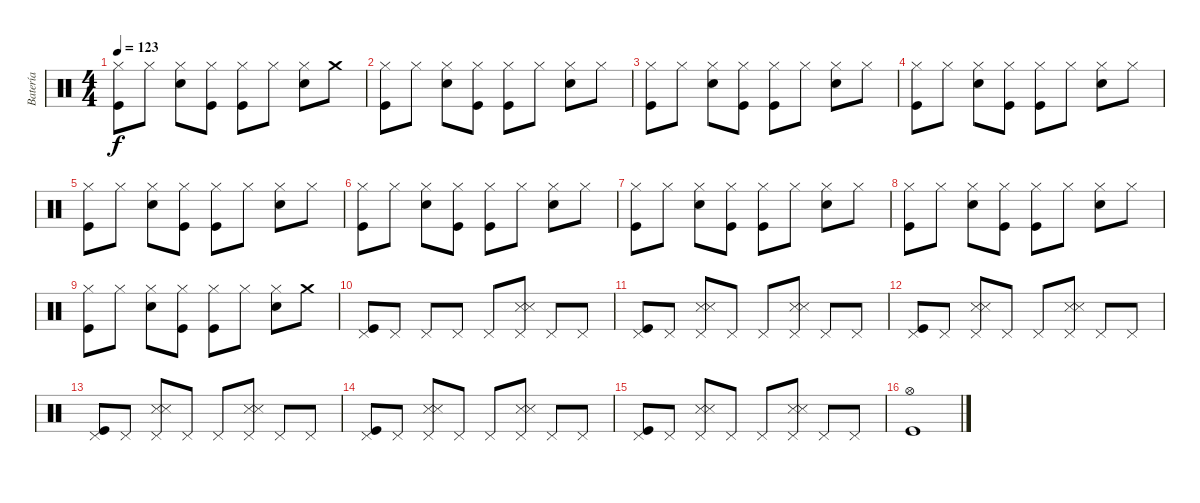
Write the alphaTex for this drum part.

\track ("Batería" "Batería") {instrument percussion}
\staff {score}
\articulation defaults
\ts (4 4)
\tempo 123
\clef neutral
\ks c
("Hi-Hat (closed)" "Kick (hit)").8{dy f} "Hi-Hat (closed)".8 ("Hi-Hat (closed)" "Snare (hit) 2").8 ("Hi-Hat (closed)" "Kick (hit)").8 ("Hi-Hat (closed)" "Kick (hit)").8 "Hi-Hat (closed)".8 ("Hi-Hat (closed)" "Snare (hit) 2").8 "Crash medium (hit)".8 |
("Hi-Hat (closed)" "Kick (hit)").8 "Hi-Hat (closed)".8 ("Hi-Hat (closed)" "Snare (hit) 2").8 ("Hi-Hat (closed)" "Kick (hit)").8 ("Hi-Hat (closed)" "Kick (hit)").8 "Hi-Hat (closed)".8 ("Hi-Hat (closed)" "Snare (hit) 2").8 "Hi-Hat (closed)".8 |
("Hi-Hat (closed)" "Kick (hit)").8 "Hi-Hat (closed)".8 ("Hi-Hat (closed)" "Snare (hit) 2").8 ("Hi-Hat (closed)" "Kick (hit)").8 ("Hi-Hat (closed)" "Kick (hit)").8 "Hi-Hat (closed)".8 ("Hi-Hat (closed)" "Snare (hit) 2").8 "Hi-Hat (closed)".8 |
("Hi-Hat (closed)" "Kick (hit)").8 "Hi-Hat (closed)".8 ("Hi-Hat (closed)" "Snare (hit) 2").8 ("Hi-Hat (closed)" "Kick (hit)").8 ("Hi-Hat (closed)" "Kick (hit)").8 "Hi-Hat (closed)".8 ("Hi-Hat (closed)" "Snare (hit) 2").8 "Hi-Hat (closed)".8 |
("Hi-Hat (closed)" "Kick (hit)").8 "Hi-Hat (closed)".8 ("Hi-Hat (closed)" "Snare (hit) 2").8 ("Hi-Hat (closed)" "Kick (hit)").8 ("Hi-Hat (closed)" "Kick (hit)").8 "Hi-Hat (closed)".8 ("Hi-Hat (closed)" "Snare (hit) 2").8 "Hi-Hat (closed)".8 |
("Hi-Hat (closed)" "Kick (hit)").8 "Hi-Hat (closed)".8 ("Hi-Hat (closed)" "Snare (hit) 2").8 ("Hi-Hat (closed)" "Kick (hit)").8 ("Hi-Hat (closed)" "Kick (hit)").8 "Hi-Hat (closed)".8 ("Hi-Hat (closed)" "Snare (hit) 2").8 "Hi-Hat (closed)".8 |
("Hi-Hat (closed)" "Kick (hit)").8 "Hi-Hat (closed)".8 ("Hi-Hat (closed)" "Snare (hit) 2").8 ("Hi-Hat (closed)" "Kick (hit)").8 ("Hi-Hat (closed)" "Kick (hit)").8 "Hi-Hat (closed)".8 ("Hi-Hat (closed)" "Snare (hit) 2").8 "Hi-Hat (closed)".8 |
("Hi-Hat (closed)" "Kick (hit)").8 "Hi-Hat (closed)".8 ("Hi-Hat (closed)" "Snare (hit) 2").8 ("Hi-Hat (closed)" "Kick (hit)").8 ("Hi-Hat (closed)" "Kick (hit)").8 "Hi-Hat (closed)".8 ("Hi-Hat (closed)" "Snare (hit) 2").8 "Hi-Hat (closed)".8 |
("Hi-Hat (closed)" "Kick (hit)").8 "Hi-Hat (closed)".8 ("Hi-Hat (closed)" "Snare (hit) 2").8 ("Hi-Hat (closed)" "Kick (hit)").8 ("Hi-Hat (closed)" "Kick (hit)").8 "Hi-Hat (closed)".8 ("Hi-Hat (closed)" "Snare (hit) 2").8 "Crash medium (hit)".8 |
("Pedal Hi-Hat (hit)" "Kick (hit)").8 "Pedal Hi-Hat (hit)".8 "Pedal Hi-Hat (hit)".8 "Pedal Hi-Hat (hit)".8 "Pedal Hi-Hat (hit)".8 ("Pedal Hi-Hat (hit)" "Snare (side stick) 3" "Snare (side stick) 3").8 "Pedal Hi-Hat (hit)".8 "Pedal Hi-Hat (hit)".8 |
("Pedal Hi-Hat (hit)" "Kick (hit)").8 "Pedal Hi-Hat (hit)".8 ("Pedal Hi-Hat (hit)" "Snare (side stick) 3" "Snare (side stick) 3").8 "Pedal Hi-Hat (hit)".8 "Pedal Hi-Hat (hit)".8 ("Pedal Hi-Hat (hit)" "Snare (side stick) 3" "Snare (side stick) 3").8 "Pedal Hi-Hat (hit)".8 "Pedal Hi-Hat (hit)".8 |
("Pedal Hi-Hat (hit)" "Kick (hit)").8 "Pedal Hi-Hat (hit)".8 ("Pedal Hi-Hat (hit)" "Snare (side stick) 3" "Snare (side stick) 3").8 "Pedal Hi-Hat (hit)".8 "Pedal Hi-Hat (hit)".8 ("Pedal Hi-Hat (hit)" "Snare (side stick) 3" "Snare (side stick) 3").8 "Pedal Hi-Hat (hit)".8 "Pedal Hi-Hat (hit)".8 |
("Pedal Hi-Hat (hit)" "Kick (hit)").8 "Pedal Hi-Hat (hit)".8 ("Pedal Hi-Hat (hit)" "Snare (side stick) 3" "Snare (side stick) 3").8 "Pedal Hi-Hat (hit)".8 "Pedal Hi-Hat (hit)".8 ("Pedal Hi-Hat (hit)" "Snare (side stick) 3" "Snare (side stick) 3").8 "Pedal Hi-Hat (hit)".8 "Pedal Hi-Hat (hit)".8 |
("Pedal Hi-Hat (hit)" "Kick (hit)").8 "Pedal Hi-Hat (hit)".8 ("Pedal Hi-Hat (hit)" "Snare (side stick) 3" "Snare (side stick) 3").8 "Pedal Hi-Hat (hit)".8 "Pedal Hi-Hat (hit)".8 ("Pedal Hi-Hat (hit)" "Snare (side stick) 3" "Snare (side stick) 3").8 "Pedal Hi-Hat (hit)".8 "Pedal Hi-Hat (hit)".8 |
("Pedal Hi-Hat (hit)" "Kick (hit)").8 "Pedal Hi-Hat (hit)".8 ("Pedal Hi-Hat (hit)" "Snare (side stick) 3" "Snare (side stick) 3").8 "Pedal Hi-Hat (hit)".8 "Pedal Hi-Hat (hit)".8 ("Pedal Hi-Hat (hit)" "Snare (side stick) 3" "Snare (side stick) 3").8 "Pedal Hi-Hat (hit)".8 "Pedal Hi-Hat (hit)".8 |
("Hi-Hat (open)" "Kick (hit)").1
